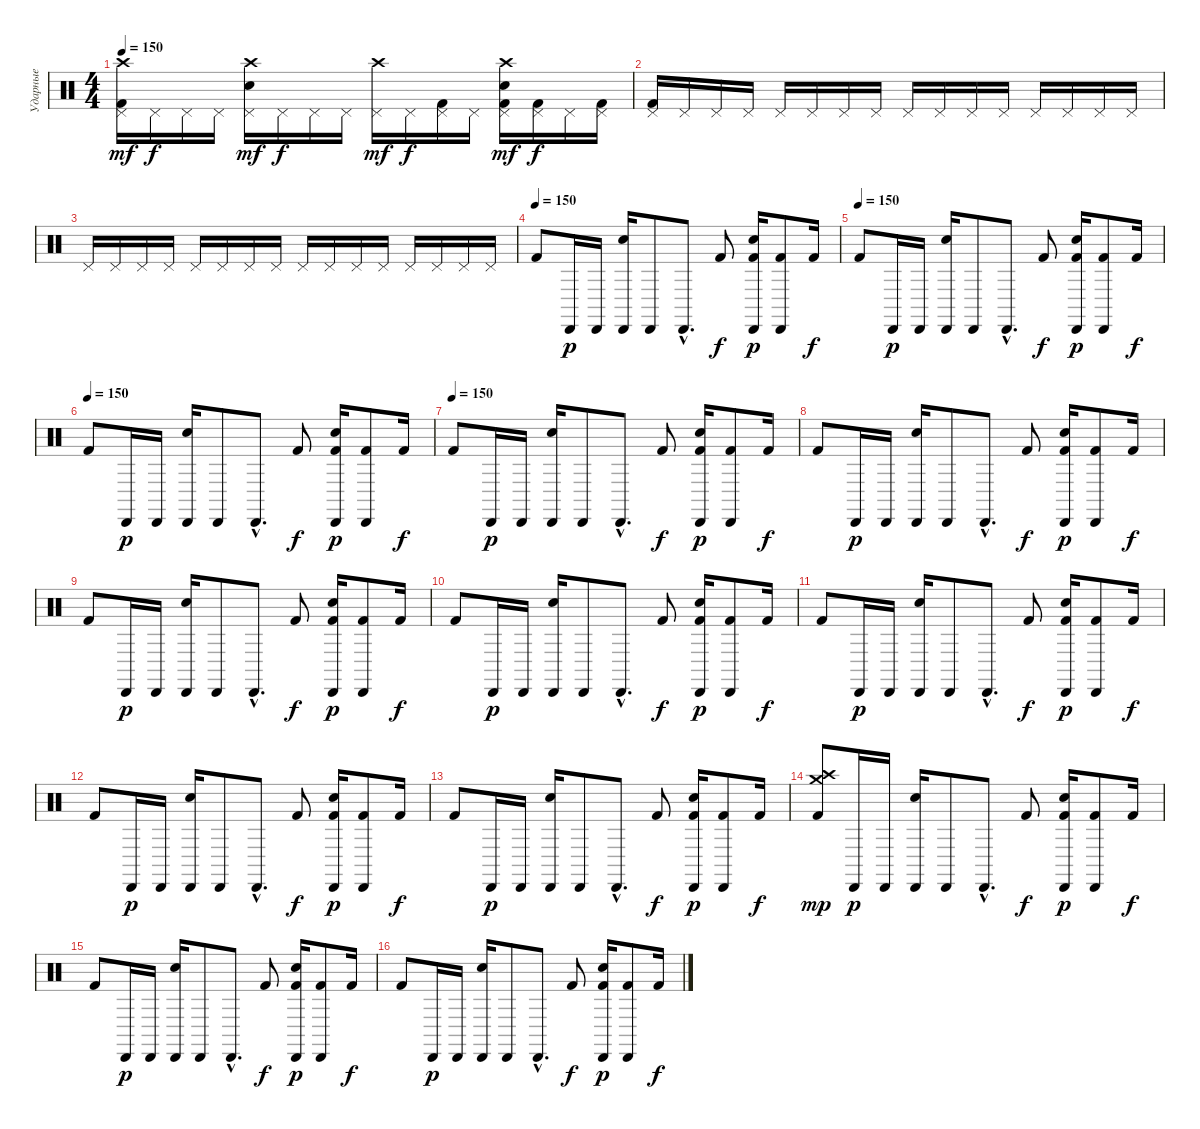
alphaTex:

\track ("Ударные" "Ударные") {instrument percussion}
\staff {score}
\articulation defaults
\ts (4 4)
\tempo 150
\clef neutral
\ks c
("Crash high (hit)" "Pedal Hi-Hat (hit)" "Kick (hit) 2").16{dy mf} "Pedal Hi-Hat (hit)".16{dy f} "Pedal Hi-Hat (hit)".16 "Pedal Hi-Hat (hit)".16 ("Crash high (hit)" "Pedal Hi-Hat (hit)" "Electric Snare (hit)").16{dy mf} "Pedal Hi-Hat (hit)".16{dy f} "Pedal Hi-Hat (hit)".16 "Pedal Hi-Hat (hit)".16 ("Crash high (hit)" "Pedal Hi-Hat (hit)").16{dy mf} "Pedal Hi-Hat (hit)".16{dy f} ("Pedal Hi-Hat (hit)" "Kick (hit) 2").16 "Pedal Hi-Hat (hit)".16 ("Crash high (hit)" "Pedal Hi-Hat (hit)" "Electric Snare (hit)" "Kick (hit) 2").16{dy mf} ("Pedal Hi-Hat (hit)" "Kick (hit) 2").16{dy f} "Pedal Hi-Hat (hit)".16 ("Pedal Hi-Hat (hit)" "Kick (hit) 2").16 |
("Pedal Hi-Hat (hit)" "Kick (hit) 2").16 "Pedal Hi-Hat (hit)".16 "Pedal Hi-Hat (hit)".16 "Pedal Hi-Hat (hit)".16 "Pedal Hi-Hat (hit)".16 "Pedal Hi-Hat (hit)".16 "Pedal Hi-Hat (hit)".16 "Pedal Hi-Hat (hit)".16 "Pedal Hi-Hat (hit)".16 "Pedal Hi-Hat (hit)".16 "Pedal Hi-Hat (hit)".16 "Pedal Hi-Hat (hit)".16 "Pedal Hi-Hat (hit)".16 "Pedal Hi-Hat (hit)".16 "Pedal Hi-Hat (hit)".16 "Pedal Hi-Hat (hit)".16 |
"Pedal Hi-Hat (hit)".16 "Pedal Hi-Hat (hit)".16 "Pedal Hi-Hat (hit)".16 "Pedal Hi-Hat (hit)".16 "Pedal Hi-Hat (hit)".16 "Pedal Hi-Hat (hit)".16 "Pedal Hi-Hat (hit)".16 "Pedal Hi-Hat (hit)".16 "Pedal Hi-Hat (hit)".16 "Pedal Hi-Hat (hit)".16 "Pedal Hi-Hat (hit)".16 "Pedal Hi-Hat (hit)".16 "Pedal Hi-Hat (hit)".16 "Pedal Hi-Hat (hit)".16 "Pedal Hi-Hat (hit)".16 "Pedal Hi-Hat (hit)".16 |
\tempo (150)
"Kick (hit) 2".8 "Cabasa (hit)".16{dy p} "Cabasa (hit)".16 ("Cabasa (hit)" "Electric Snare (hit)").16 "Cabasa (hit)".8 "Cabasa (hit)"{hac}.8{d} "Kick (hit) 2".8{dy f} ("Cabasa (hit)" "Electric Snare (hit)" "Kick (hit) 2").16{dy p} ("Cabasa (hit)" "Kick (hit) 2").8 "Kick (hit) 2".16{dy f} |
\tempo (150)
"Kick (hit) 2".8 "Cabasa (hit)".16{dy p} "Cabasa (hit)".16 ("Cabasa (hit)" "Electric Snare (hit)").16 "Cabasa (hit)".8 "Cabasa (hit)"{hac}.8{d} "Kick (hit) 2".8{dy f} ("Cabasa (hit)" "Electric Snare (hit)" "Kick (hit) 2").16{dy p} ("Cabasa (hit)" "Kick (hit) 2").8 "Kick (hit) 2".16{dy f} |
\tempo (150)
"Kick (hit) 2".8 "Cabasa (hit)".16{dy p} "Cabasa (hit)".16 ("Cabasa (hit)" "Electric Snare (hit)").16 "Cabasa (hit)".8 "Cabasa (hit)"{hac}.8{d} "Kick (hit) 2".8{dy f} ("Cabasa (hit)" "Electric Snare (hit)" "Kick (hit) 2").16{dy p} ("Cabasa (hit)" "Kick (hit) 2").8 "Kick (hit) 2".16{dy f} |
\tempo (150)
"Kick (hit) 2".8 "Cabasa (hit)".16{dy p} "Cabasa (hit)".16 ("Cabasa (hit)" "Electric Snare (hit)").16 "Cabasa (hit)".8 "Cabasa (hit)"{hac}.8{d} "Kick (hit) 2".8{dy f} ("Cabasa (hit)" "Electric Snare (hit)" "Kick (hit) 2").16{dy p} ("Cabasa (hit)" "Kick (hit) 2").8 "Kick (hit) 2".16{dy f} |
"Kick (hit) 2".8 "Cabasa (hit)".16{dy p} "Cabasa (hit)".16 ("Cabasa (hit)" "Electric Snare (hit)").16 "Cabasa (hit)".8 "Cabasa (hit)"{hac}.8{d} "Kick (hit) 2".8{dy f} ("Cabasa (hit)" "Electric Snare (hit)" "Kick (hit) 2").16{dy p} ("Cabasa (hit)" "Kick (hit) 2").8 "Kick (hit) 2".16{dy f} |
"Kick (hit) 2".8 "Cabasa (hit)".16{dy p} "Cabasa (hit)".16 ("Cabasa (hit)" "Electric Snare (hit)").16 "Cabasa (hit)".8 "Cabasa (hit)"{hac}.8{d} "Kick (hit) 2".8{dy f} ("Cabasa (hit)" "Electric Snare (hit)" "Kick (hit) 2").16{dy p} ("Cabasa (hit)" "Kick (hit) 2").8 "Kick (hit) 2".16{dy f} |
"Kick (hit) 2".8 "Cabasa (hit)".16{dy p} "Cabasa (hit)".16 ("Cabasa (hit)" "Electric Snare (hit)").16 "Cabasa (hit)".8 "Cabasa (hit)"{hac}.8{d} "Kick (hit) 2".8{dy f} ("Cabasa (hit)" "Electric Snare (hit)" "Kick (hit) 2").16{dy p} ("Cabasa (hit)" "Kick (hit) 2").8 "Kick (hit) 2".16{dy f} |
"Kick (hit) 2".8 "Cabasa (hit)".16{dy p} "Cabasa (hit)".16 ("Cabasa (hit)" "Electric Snare (hit)").16 "Cabasa (hit)".8 "Cabasa (hit)"{hac}.8{d} "Kick (hit) 2".8{dy f} ("Cabasa (hit)" "Electric Snare (hit)" "Kick (hit) 2").16{dy p} ("Cabasa (hit)" "Kick (hit) 2").8 "Kick (hit) 2".16{dy f} |
"Kick (hit) 2".8 "Cabasa (hit)".16{dy p} "Cabasa (hit)".16 ("Cabasa (hit)" "Electric Snare (hit)").16 "Cabasa (hit)".8 "Cabasa (hit)"{hac}.8{d} "Kick (hit) 2".8{dy f} ("Cabasa (hit)" "Electric Snare (hit)" "Kick (hit) 2").16{dy p} ("Cabasa (hit)" "Kick (hit) 2").8 "Kick (hit) 2".16{dy f} |
"Kick (hit) 2".8 "Cabasa (hit)".16{dy p} "Cabasa (hit)".16 ("Cabasa (hit)" "Electric Snare (hit)").16 "Cabasa (hit)".8 "Cabasa (hit)"{hac}.8{d} "Kick (hit) 2".8{dy f} ("Cabasa (hit)" "Electric Snare (hit)" "Kick (hit) 2").16{dy p} ("Cabasa (hit)" "Kick (hit) 2").8 "Kick (hit) 2".16{dy f} |
("Crash medium (hit)" "Crash high (hit)" "Kick (hit) 2").8{dy mp} "Cabasa (hit)".16{dy p} "Cabasa (hit)".16 ("Cabasa (hit)" "Electric Snare (hit)").16 "Cabasa (hit)".8 "Cabasa (hit)"{hac}.8{d} "Kick (hit) 2".8{dy f} ("Cabasa (hit)" "Electric Snare (hit)" "Kick (hit) 2").16{dy p} ("Cabasa (hit)" "Kick (hit) 2").8 "Kick (hit) 2".16{dy f} |
"Kick (hit) 2".8 "Cabasa (hit)".16{dy p} "Cabasa (hit)".16 ("Cabasa (hit)" "Electric Snare (hit)").16 "Cabasa (hit)".8 "Cabasa (hit)"{hac}.8{d} "Kick (hit) 2".8{dy f} ("Cabasa (hit)" "Electric Snare (hit)" "Kick (hit) 2").16{dy p} ("Cabasa (hit)" "Kick (hit) 2").8 "Kick (hit) 2".16{dy f} |
"Kick (hit) 2".8 "Cabasa (hit)".16{dy p} "Cabasa (hit)".16 ("Cabasa (hit)" "Electric Snare (hit)").16 "Cabasa (hit)".8 "Cabasa (hit)"{hac}.8{d} "Kick (hit) 2".8{dy f} ("Cabasa (hit)" "Electric Snare (hit)" "Kick (hit) 2").16{dy p} ("Cabasa (hit)" "Kick (hit) 2").8 "Kick (hit) 2".16{dy f}
